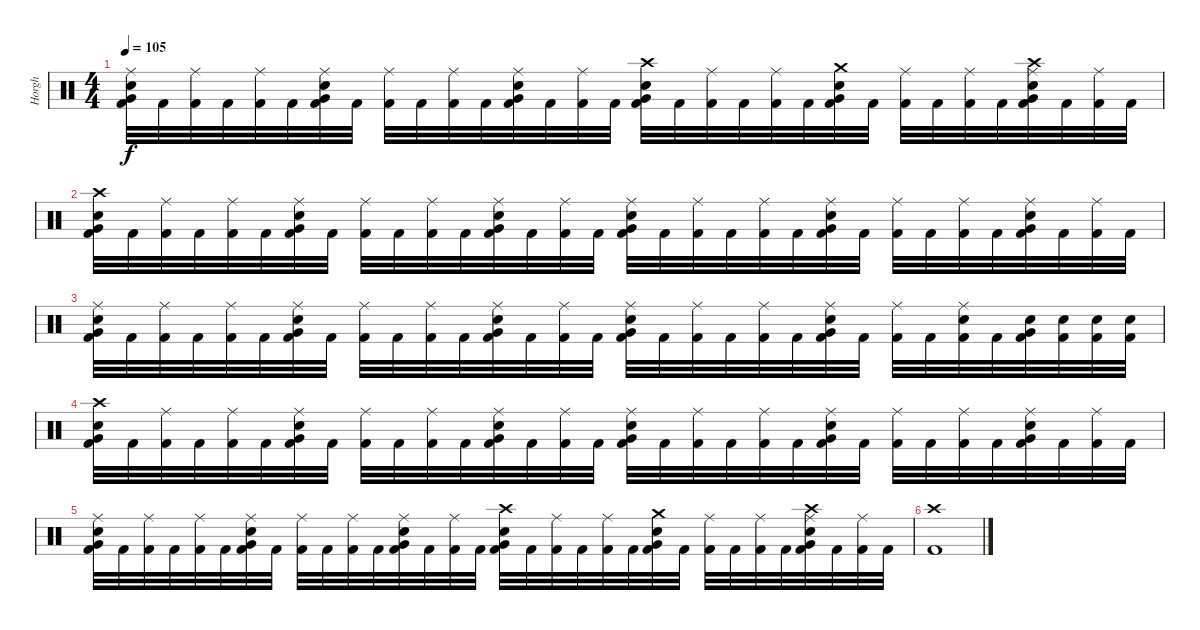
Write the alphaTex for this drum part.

\track ("Horgh" "Horgh") {instrument percussion}
\staff {score}
\articulation defaults
\ts (4 4)
\tempo 105
\clef neutral
\ks c
("Ride (middle)" "Electric Snare (hit)" "Very Low Tom (hit)" "Kick (hit) 2").32{dy f} "Kick (hit) 2".32 ("Ride (middle)" "Kick (hit) 2").32 "Kick (hit) 2".32 ("Ride (middle)" "Kick (hit) 2").32 "Kick (hit) 2".32 ("Ride (middle)" "Electric Snare (hit)" "Very Low Tom (hit)" "Kick (hit) 2").32 "Kick (hit) 2".32 ("Ride (middle)" "Kick (hit) 2").32 "Kick (hit) 2".32 ("Ride (middle)" "Kick (hit) 2").32 "Kick (hit) 2".32 ("Ride (middle)" "Electric Snare (hit)" "Very Low Tom (hit)" "Kick (hit) 2").32 "Kick (hit) 2".32 ("Ride (middle)" "Kick (hit) 2").32 "Kick (hit) 2".32 ("Crash high (hit)" "Electric Snare (hit)" "Very Low Tom (hit)" "Kick (hit) 2").32 "Kick (hit) 2".32 ("Ride (middle)" "Kick (hit) 2").32 "Kick (hit) 2".32 ("Ride (middle)" "Kick (hit) 2").32 "Kick (hit) 2".32 ("Crash medium (hit)" "Electric Snare (hit)" "Very Low Tom (hit)" "Kick (hit) 2").32 "Kick (hit) 2".32 ("Ride (middle)" "Kick (hit) 2").32 "Kick (hit) 2".32 ("Ride (middle)" "Kick (hit) 2").32 "Kick (hit) 2".32 ("Crash high (hit)" "Ride (middle)" "Electric Snare (hit)" "Very Low Tom (hit)" "Kick (hit) 2").32 "Kick (hit) 2".32 ("Ride (middle)" "Kick (hit) 2").32 "Kick (hit) 2".32 |
("Crash high (hit)" "Electric Snare (hit)" "Very Low Tom (hit)" "Kick (hit) 2").32 "Kick (hit) 2".32 ("Ride (middle)" "Kick (hit) 2").32 "Kick (hit) 2".32 ("Ride (middle)" "Kick (hit) 2").32 "Kick (hit) 2".32 ("Ride (middle)" "Electric Snare (hit)" "Very Low Tom (hit)" "Kick (hit) 2").32 "Kick (hit) 2".32 ("Ride (middle)" "Kick (hit) 2").32 "Kick (hit) 2".32 ("Ride (middle)" "Kick (hit) 2").32 "Kick (hit) 2".32 ("Ride (middle)" "Electric Snare (hit)" "Very Low Tom (hit)" "Kick (hit) 2").32 "Kick (hit) 2".32 ("Ride (middle)" "Kick (hit) 2").32 "Kick (hit) 2".32 ("Ride (middle)" "Electric Snare (hit)" "Very Low Tom (hit)" "Kick (hit) 2").32 "Kick (hit) 2".32 ("Ride (middle)" "Kick (hit) 2").32 "Kick (hit) 2".32 ("Ride (middle)" "Kick (hit) 2").32 "Kick (hit) 2".32 ("Ride (middle)" "Electric Snare (hit)" "Very Low Tom (hit)" "Kick (hit) 2").32 "Kick (hit) 2".32 ("Ride (middle)" "Kick (hit) 2").32 "Kick (hit) 2".32 ("Ride (middle)" "Kick (hit) 2").32 "Kick (hit) 2".32 ("Ride (middle)" "Electric Snare (hit)" "Very Low Tom (hit)" "Kick (hit) 2").32 "Kick (hit) 2".32 ("Ride (middle)" "Kick (hit) 2").32 "Kick (hit) 2".32 |
("Ride (middle)" "Electric Snare (hit)" "Very Low Tom (hit)" "Kick (hit) 2").32 "Kick (hit) 2".32 ("Ride (middle)" "Kick (hit) 2").32 "Kick (hit) 2".32 ("Ride (middle)" "Kick (hit) 2").32 "Kick (hit) 2".32 ("Ride (middle)" "Electric Snare (hit)" "Very Low Tom (hit)" "Kick (hit) 2").32 "Kick (hit) 2".32 ("Ride (middle)" "Kick (hit) 2").32 "Kick (hit) 2".32 ("Ride (middle)" "Kick (hit) 2").32 "Kick (hit) 2".32 ("Ride (middle)" "Electric Snare (hit)" "Very Low Tom (hit)" "Kick (hit) 2").32 "Kick (hit) 2".32 ("Ride (middle)" "Kick (hit) 2").32 "Kick (hit) 2".32 ("Ride (middle)" "Electric Snare (hit)" "Very Low Tom (hit)" "Kick (hit) 2").32 "Kick (hit) 2".32 ("Ride (middle)" "Kick (hit) 2").32 "Kick (hit) 2".32 ("Ride (middle)" "Kick (hit) 2").32 "Kick (hit) 2".32 ("Ride (middle)" "Electric Snare (hit)" "Very Low Tom (hit)" "Kick (hit) 2").32 "Kick (hit) 2".32 ("Ride (middle)" "Kick (hit) 2").32 "Kick (hit) 2".32 ("Ride (middle)" "Electric Snare (hit)" "Kick (hit) 2").32 "Kick (hit) 2".32 ("Electric Snare (hit)" "Very Low Tom (hit)" "Kick (hit) 2").32 ("Electric Snare (hit)" "Kick (hit) 2").32 ("Electric Snare (hit)" "Kick (hit) 2").32 ("Electric Snare (hit)" "Kick (hit) 2").32 |
("Crash high (hit)" "Electric Snare (hit)" "Very Low Tom (hit)" "Kick (hit) 2").32 "Kick (hit) 2".32 ("Ride (middle)" "Kick (hit) 2").32 "Kick (hit) 2".32 ("Ride (middle)" "Kick (hit) 2").32 "Kick (hit) 2".32 ("Ride (middle)" "Electric Snare (hit)" "Very Low Tom (hit)" "Kick (hit) 2").32 "Kick (hit) 2".32 ("Ride (middle)" "Kick (hit) 2").32 "Kick (hit) 2".32 ("Ride (middle)" "Kick (hit) 2").32 "Kick (hit) 2".32 ("Ride (middle)" "Electric Snare (hit)" "Very Low Tom (hit)" "Kick (hit) 2").32 "Kick (hit) 2".32 ("Ride (middle)" "Kick (hit) 2").32 "Kick (hit) 2".32 ("Ride (middle)" "Electric Snare (hit)" "Very Low Tom (hit)" "Kick (hit) 2").32 "Kick (hit) 2".32 ("Ride (middle)" "Kick (hit) 2").32 "Kick (hit) 2".32 ("Ride (middle)" "Kick (hit) 2").32 "Kick (hit) 2".32 ("Ride (middle)" "Electric Snare (hit)" "Very Low Tom (hit)" "Kick (hit) 2").32 "Kick (hit) 2".32 ("Ride (middle)" "Kick (hit) 2").32 "Kick (hit) 2".32 ("Ride (middle)" "Kick (hit) 2").32 "Kick (hit) 2".32 ("Ride (middle)" "Electric Snare (hit)" "Very Low Tom (hit)" "Kick (hit) 2").32 "Kick (hit) 2".32 ("Ride (middle)" "Kick (hit) 2").32 "Kick (hit) 2".32 |
("Ride (middle)" "Electric Snare (hit)" "Very Low Tom (hit)" "Kick (hit) 2").32 "Kick (hit) 2".32 ("Ride (middle)" "Kick (hit) 2").32 "Kick (hit) 2".32 ("Ride (middle)" "Kick (hit) 2").32 "Kick (hit) 2".32 ("Ride (middle)" "Electric Snare (hit)" "Very Low Tom (hit)" "Kick (hit) 2").32 "Kick (hit) 2".32 ("Ride (middle)" "Kick (hit) 2").32 "Kick (hit) 2".32 ("Ride (middle)" "Kick (hit) 2").32 "Kick (hit) 2".32 ("Ride (middle)" "Electric Snare (hit)" "Very Low Tom (hit)" "Kick (hit) 2").32 "Kick (hit) 2".32 ("Ride (middle)" "Kick (hit) 2").32 "Kick (hit) 2".32 ("Crash high (hit)" "Electric Snare (hit)" "Very Low Tom (hit)" "Kick (hit) 2").32 "Kick (hit) 2".32 ("Ride (middle)" "Kick (hit) 2").32 "Kick (hit) 2".32 ("Ride (middle)" "Kick (hit) 2").32 "Kick (hit) 2".32 ("Crash medium (hit)" "Electric Snare (hit)" "Very Low Tom (hit)" "Kick (hit) 2").32 "Kick (hit) 2".32 ("Ride (middle)" "Kick (hit) 2").32 "Kick (hit) 2".32 ("Ride (middle)" "Kick (hit) 2").32 "Kick (hit) 2".32 ("Crash high (hit)" "Ride (middle)" "Electric Snare (hit)" "Very Low Tom (hit)" "Kick (hit) 2").32 "Kick (hit) 2".32 ("Ride (middle)" "Kick (hit) 2").32 "Kick (hit) 2".32 |
("Crash high (hit)" "Kick (hit) 2").1
